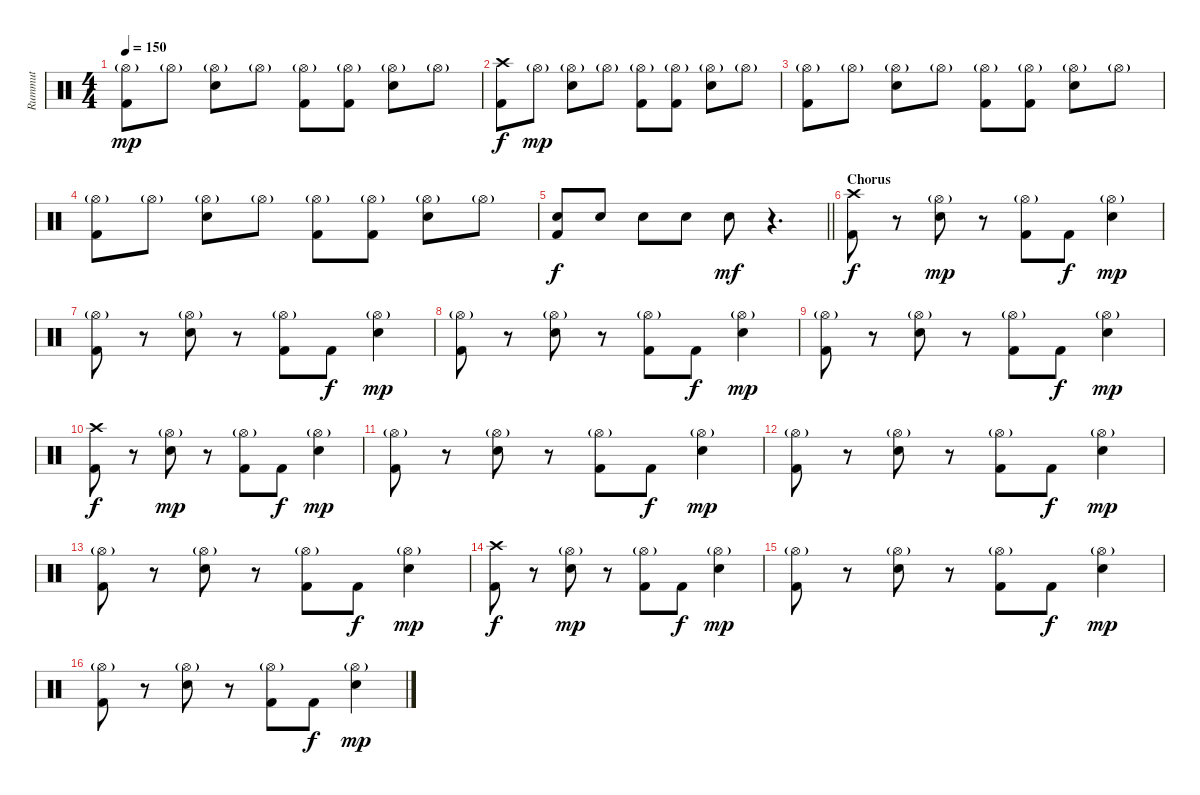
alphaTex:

\track ("Rummut" "Rummut") {instrument percussion bank 69}
\staff {score}
\articulation defaults
\ts (4 4)
\tempo 150
\clef neutral
\ks c
("Hi-Hat (open)"{g} "Kick (hit) 2").8{dy mp} "Hi-Hat (open)"{g}.8 ("Hi-Hat (open)"{g} "Snare (hit) 2").8 "Hi-Hat (open)"{g}.8 ("Hi-Hat (open)"{g} "Kick (hit) 2").8 ("Hi-Hat (open)"{g} "Kick (hit) 2").8 ("Hi-Hat (open)"{g} "Snare (hit) 2").8 "Hi-Hat (open)"{g}.8 |
("Crash high (hit)" "Kick (hit) 2").8{dy f} "Hi-Hat (open)"{g}.8{dy mp} ("Hi-Hat (open)"{g} "Snare (hit) 2").8 "Hi-Hat (open)"{g}.8 ("Hi-Hat (open)"{g} "Kick (hit) 2").8 ("Hi-Hat (open)"{g} "Kick (hit) 2").8 ("Hi-Hat (open)"{g} "Snare (hit) 2").8 "Hi-Hat (open)"{g}.8 |
("Hi-Hat (open)"{g} "Kick (hit) 2").8 "Hi-Hat (open)"{g}.8 ("Hi-Hat (open)"{g} "Snare (hit) 2").8 "Hi-Hat (open)"{g}.8 ("Hi-Hat (open)"{g} "Kick (hit) 2").8 ("Hi-Hat (open)"{g} "Kick (hit) 2").8 ("Hi-Hat (open)"{g} "Snare (hit) 2").8 "Hi-Hat (open)"{g}.8 |
("Hi-Hat (open)"{g} "Kick (hit) 2").8 "Hi-Hat (open)"{g}.8 ("Hi-Hat (open)"{g} "Snare (hit) 2").8 "Hi-Hat (open)"{g}.8 ("Hi-Hat (open)"{g} "Kick (hit) 2").8 ("Hi-Hat (open)"{g} "Kick (hit) 2").8 ("Hi-Hat (open)"{g} "Snare (hit) 2").8 "Hi-Hat (open)"{g}.8 |
\barLineRight lightlight
("Snare (hit) 2" "Kick (hit) 2").8{dy f} "Snare (hit) 2".8 "Snare (hit) 2".8 "Snare (hit) 2".8 "Snare (hit) 2".8{dy mf} r.4{d} |
\section ("" "Chorus")
("Crash high (hit)" "Kick (hit) 2").8{dy f} r.8 ("Hi-Hat (open)"{g} "Snare (hit) 2").8{dy mp} r.8 ("Hi-Hat (open)"{g} "Kick (hit) 2").8 "Kick (hit) 2".8{dy f} ("Hi-Hat (open)"{g} "Snare (hit) 2").4{dy mp} |
("Hi-Hat (open)"{g} "Kick (hit) 2").8 r.8 ("Hi-Hat (open)"{g} "Snare (hit) 2").8 r.8 ("Hi-Hat (open)"{g} "Kick (hit) 2").8 "Kick (hit) 2".8{dy f} ("Hi-Hat (open)"{g} "Snare (hit) 2").4{dy mp} |
("Hi-Hat (open)"{g} "Kick (hit) 2").8 r.8 ("Hi-Hat (open)"{g} "Snare (hit) 2").8 r.8 ("Hi-Hat (open)"{g} "Kick (hit) 2").8 "Kick (hit) 2".8{dy f} ("Hi-Hat (open)"{g} "Snare (hit) 2").4{dy mp} |
("Hi-Hat (open)"{g} "Kick (hit) 2").8 r.8 ("Hi-Hat (open)"{g} "Snare (hit) 2").8 r.8 ("Hi-Hat (open)"{g} "Kick (hit) 2").8 "Kick (hit) 2".8{dy f} ("Hi-Hat (open)"{g} "Snare (hit) 2").4{dy mp} |
("Crash high (hit)" "Kick (hit) 2").8{dy f} r.8 ("Hi-Hat (open)"{g} "Snare (hit) 2").8{dy mp} r.8 ("Hi-Hat (open)"{g} "Kick (hit) 2").8 "Kick (hit) 2".8{dy f} ("Hi-Hat (open)"{g} "Snare (hit) 2").4{dy mp} |
("Hi-Hat (open)"{g} "Kick (hit) 2").8 r.8 ("Hi-Hat (open)"{g} "Snare (hit) 2").8 r.8 ("Hi-Hat (open)"{g} "Kick (hit) 2").8 "Kick (hit) 2".8{dy f} ("Hi-Hat (open)"{g} "Snare (hit) 2").4{dy mp} |
("Hi-Hat (open)"{g} "Kick (hit) 2").8 r.8 ("Hi-Hat (open)"{g} "Snare (hit) 2").8 r.8 ("Hi-Hat (open)"{g} "Kick (hit) 2").8 "Kick (hit) 2".8{dy f} ("Hi-Hat (open)"{g} "Snare (hit) 2").4{dy mp} |
("Hi-Hat (open)"{g} "Kick (hit) 2").8 r.8 ("Hi-Hat (open)"{g} "Snare (hit) 2").8 r.8 ("Hi-Hat (open)"{g} "Kick (hit) 2").8 "Kick (hit) 2".8{dy f} ("Hi-Hat (open)"{g} "Snare (hit) 2").4{dy mp} |
("Crash high (hit)" "Kick (hit) 2").8{dy f} r.8 ("Hi-Hat (open)"{g} "Snare (hit) 2").8{dy mp} r.8 ("Hi-Hat (open)"{g} "Kick (hit) 2").8 "Kick (hit) 2".8{dy f} ("Hi-Hat (open)"{g} "Snare (hit) 2").4{dy mp} |
("Hi-Hat (open)"{g} "Kick (hit) 2").8 r.8 ("Hi-Hat (open)"{g} "Snare (hit) 2").8 r.8 ("Hi-Hat (open)"{g} "Kick (hit) 2").8 "Kick (hit) 2".8{dy f} ("Hi-Hat (open)"{g} "Snare (hit) 2").4{dy mp} |
("Hi-Hat (open)"{g} "Kick (hit) 2").8 r.8 ("Hi-Hat (open)"{g} "Snare (hit) 2").8 r.8 ("Hi-Hat (open)"{g} "Kick (hit) 2").8 "Kick (hit) 2".8{dy f} ("Hi-Hat (open)"{g} "Snare (hit) 2").4{dy mp}
